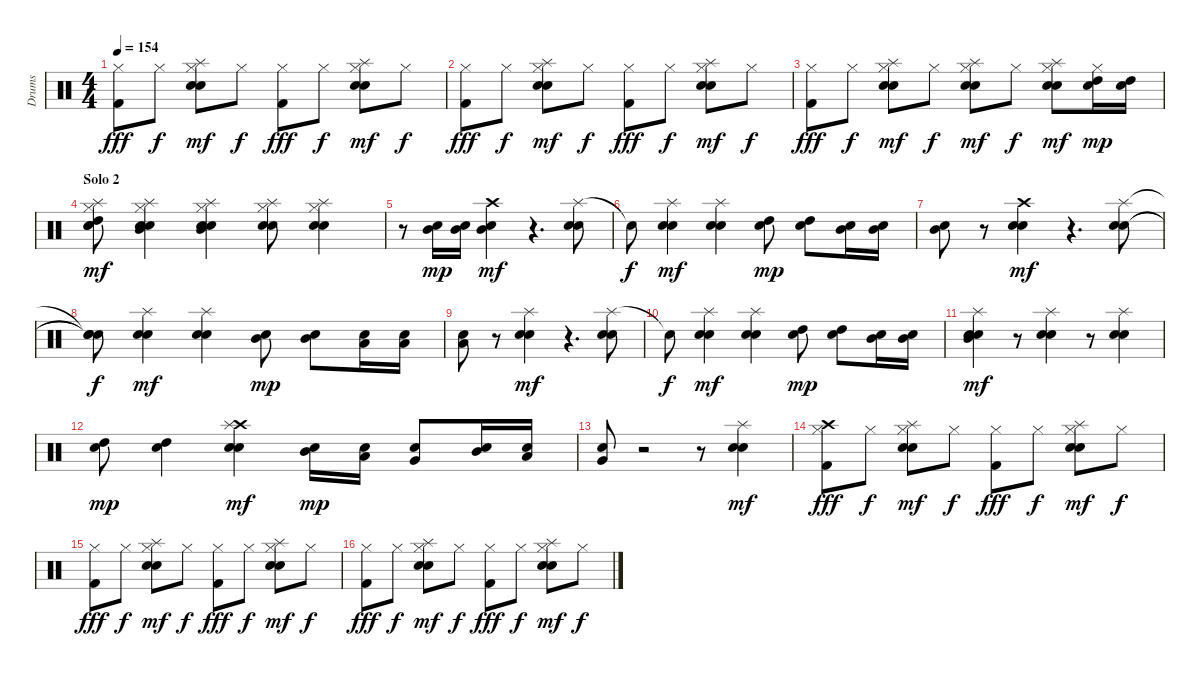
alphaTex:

\track ("Drums" "Drums") {instrument percussion}
\staff {score}
\articulation defaults
\ts (4 4)
\tempo 154
\clef neutral
\ks c
("Hi-Hat (closed)" "Kick (hit) 2").8{dy fff} "Hi-Hat (closed)".8{dy f} ("Splash (hit)" "Hi-Hat (closed)" "Electric Snare (hit)" "Snare (hit) 2").8{dy mf} "Hi-Hat (closed)".8{dy f} ("Hi-Hat (closed)" "Kick (hit) 2").8{dy fff} "Hi-Hat (closed)".8{dy f} ("Splash (hit)" "Hi-Hat (closed)" "Electric Snare (hit)" "Snare (hit) 2").8{dy mf} "Hi-Hat (closed)".8{dy f} |
("Hi-Hat (closed)" "Kick (hit) 2").8{dy fff} "Hi-Hat (closed)".8{dy f} ("Splash (hit)" "Hi-Hat (closed)" "Electric Snare (hit)" "Snare (hit) 2").8{dy mf} "Hi-Hat (closed)".8{dy f} ("Hi-Hat (closed)" "Kick (hit) 2").8{dy fff} "Hi-Hat (closed)".8{dy f} ("Splash (hit)" "Hi-Hat (closed)" "Electric Snare (hit)" "Snare (hit) 2").8{dy mf} "Hi-Hat (closed)".8{dy f} |
("Hi-Hat (closed)" "Kick (hit) 2").8{dy fff} "Hi-Hat (closed)".8{dy f} ("Splash (hit)" "Hi-Hat (closed)" "Electric Snare (hit)" "Snare (hit) 2").8{dy mf} "Hi-Hat (closed)".8{dy f} ("Splash (hit)" "Hi-Hat (closed)" "Electric Snare (hit)" "Snare (hit) 2").8{dy mf} "Hi-Hat (closed)".8{dy f} ("Splash (hit)" "Hi-Hat (closed)" "Electric Snare (hit)" "Snare (hit) 2").8{dy mf} ("Hi-Hat (closed)" "High Tom (hit)" "Snare (hit) 2").16{dy mp} ("High Tom (hit)" "Snare (hit) 2").16 |
\section ("" "Solo 2")
("Splash (hit)" "Hi-Hat (closed)" "Electric Snare (hit)" "High Tom (hit)" "Snare (hit) 2").8{dy mf} ("Splash (hit)" "Hi-Hat (closed)" "Electric Snare (hit)" "Mid Tom (hit)" "Snare (hit) 2").4 ("Splash (hit)" "Hi-Hat (closed)" "Electric Snare (hit)" "Mid Tom (hit)" "Snare (hit) 2").4 ("Splash (hit)" "Hi-Hat (closed)" "Electric Snare (hit)" "Snare (hit) 2").8 ("Splash (hit)" "Hi-Hat (closed)" "Electric Snare (hit)" "Snare (hit) 2").4 |
r.8 ("Mid Tom (hit)" "Snare (hit) 2").16{dy mp} ("Mid Tom (hit)" "Snare (hit) 2").16 ("Crash high (hit)" "Mid Tom (hit)" "Snare (hit) 2").4{dy mf} r.4{d} ("Splash (hit)" "Electric Snare (hit)" "Snare (hit) 2").8 |
"Snare (hit)"{t}.8{dy f} ("Splash (hit)" "Electric Snare (hit)" "Snare (hit) 2").4{dy mf} ("Splash (hit)" "Electric Snare (hit)" "Snare (hit) 2").4 ("High Tom (hit)" "Snare (hit) 2").8{dy mp} ("High Tom (hit)" "Snare (hit) 2").8 ("Mid Tom (hit)" "Snare (hit) 2").16 ("Mid Tom (hit)" "Snare (hit) 2").16 |
("Mid Tom (hit)" "Snare (hit) 2").8 r.8 ("Crash high (hit)" "Electric Snare (hit)" "Snare (hit) 2").4{dy mf} r.4{d} ("Splash (hit)" "Electric Snare (hit)" "Snare (hit) 2").8 |
("Snare (hit)"{t} "Snare (hit)"{t} "Snare (hit)"{t}).8{dy f} ("Splash (hit)" "Electric Snare (hit)" "Snare (hit) 2").4{dy mf} ("Splash (hit)" "Electric Snare (hit)" "Snare (hit) 2").4 ("Mid Tom (hit)" "Snare (hit) 2").8{dy mp} ("Mid Tom (hit)" "Snare (hit) 2").8 ("Low Tom (hit)" "Snare (hit) 2").16 ("Low Tom (hit)" "Snare (hit) 2").16 |
("Low Tom (hit)" "Snare (hit) 2").8 r.8 ("Splash (hit)" "Electric Snare (hit)" "Snare (hit) 2").4{dy mf} r.4{d} ("Splash (hit)" "Electric Snare (hit)" "Snare (hit) 2").8 |
"Snare (hit)"{t}.8{dy f} ("Splash (hit)" "Electric Snare (hit)" "Snare (hit) 2").4{dy mf} ("Splash (hit)" "Electric Snare (hit)" "Snare (hit) 2").4 ("High Tom (hit)" "Snare (hit) 2").8{dy mp} ("High Tom (hit)" "Snare (hit) 2").8 ("Mid Tom (hit)" "Snare (hit) 2").16 ("Mid Tom (hit)" "Snare (hit) 2").16 |
("Splash (hit)" "Mid Tom (hit)" "Electric Snare (hit)" "Snare (hit) 2").4{dy mf} r.8 ("Splash (hit)" "Electric Snare (hit)" "Snare (hit) 2").4 r.8 ("Splash (hit)" "Electric Snare (hit)" "Snare (hit) 2").4 |
("High Tom (hit)" "Snare (hit) 2").8{dy mp} ("High Tom (hit)" "Snare (hit) 2").4 ("Crash high (hit)" "Splash (hit)" "Electric Snare (hit)" "Snare (hit) 2").4{dy mf} ("Mid Tom (hit)" "Snare (hit) 2").16{dy mp} ("Low Tom (hit)" "Snare (hit) 2").16 ("Very Low Tom (hit)" "Snare (hit) 2").8 ("Mid Tom (hit)" "Snare (hit) 2").16 ("Low Tom (hit)" "Snare (hit) 2").16 |
("Very Low Tom (hit)" "Snare (hit) 2").8 r.2 r.8 ("Splash (hit)" "Electric Snare (hit)" "Snare (hit) 2").4{dy mf} |
("Crash high (hit)" "Hi-Hat (closed)" "Kick (hit) 2").8{dy fff} "Hi-Hat (closed)".8{dy f} ("Splash (hit)" "Hi-Hat (closed)" "Electric Snare (hit)" "Snare (hit) 2").8{dy mf} "Hi-Hat (closed)".8{dy f} ("Hi-Hat (closed)" "Kick (hit) 2").8{dy fff} "Hi-Hat (closed)".8{dy f} ("Splash (hit)" "Hi-Hat (closed)" "Electric Snare (hit)" "Snare (hit) 2").8{dy mf} "Hi-Hat (closed)".8{dy f} |
("Hi-Hat (closed)" "Kick (hit) 2").8{dy fff} "Hi-Hat (closed)".8{dy f} ("Splash (hit)" "Hi-Hat (closed)" "Electric Snare (hit)" "Snare (hit) 2").8{dy mf} "Hi-Hat (closed)".8{dy f} ("Hi-Hat (closed)" "Kick (hit) 2").8{dy fff} "Hi-Hat (closed)".8{dy f} ("Splash (hit)" "Hi-Hat (closed)" "Electric Snare (hit)" "Snare (hit) 2").8{dy mf} "Hi-Hat (closed)".8{dy f} |
("Hi-Hat (closed)" "Kick (hit) 2").8{dy fff} "Hi-Hat (closed)".8{dy f} ("Splash (hit)" "Hi-Hat (closed)" "Electric Snare (hit)" "Snare (hit) 2").8{dy mf} "Hi-Hat (closed)".8{dy f} ("Hi-Hat (closed)" "Kick (hit) 2").8{dy fff} "Hi-Hat (closed)".8{dy f} ("Splash (hit)" "Hi-Hat (closed)" "Electric Snare (hit)" "Snare (hit) 2").8{dy mf} "Hi-Hat (closed)".8{dy f}
